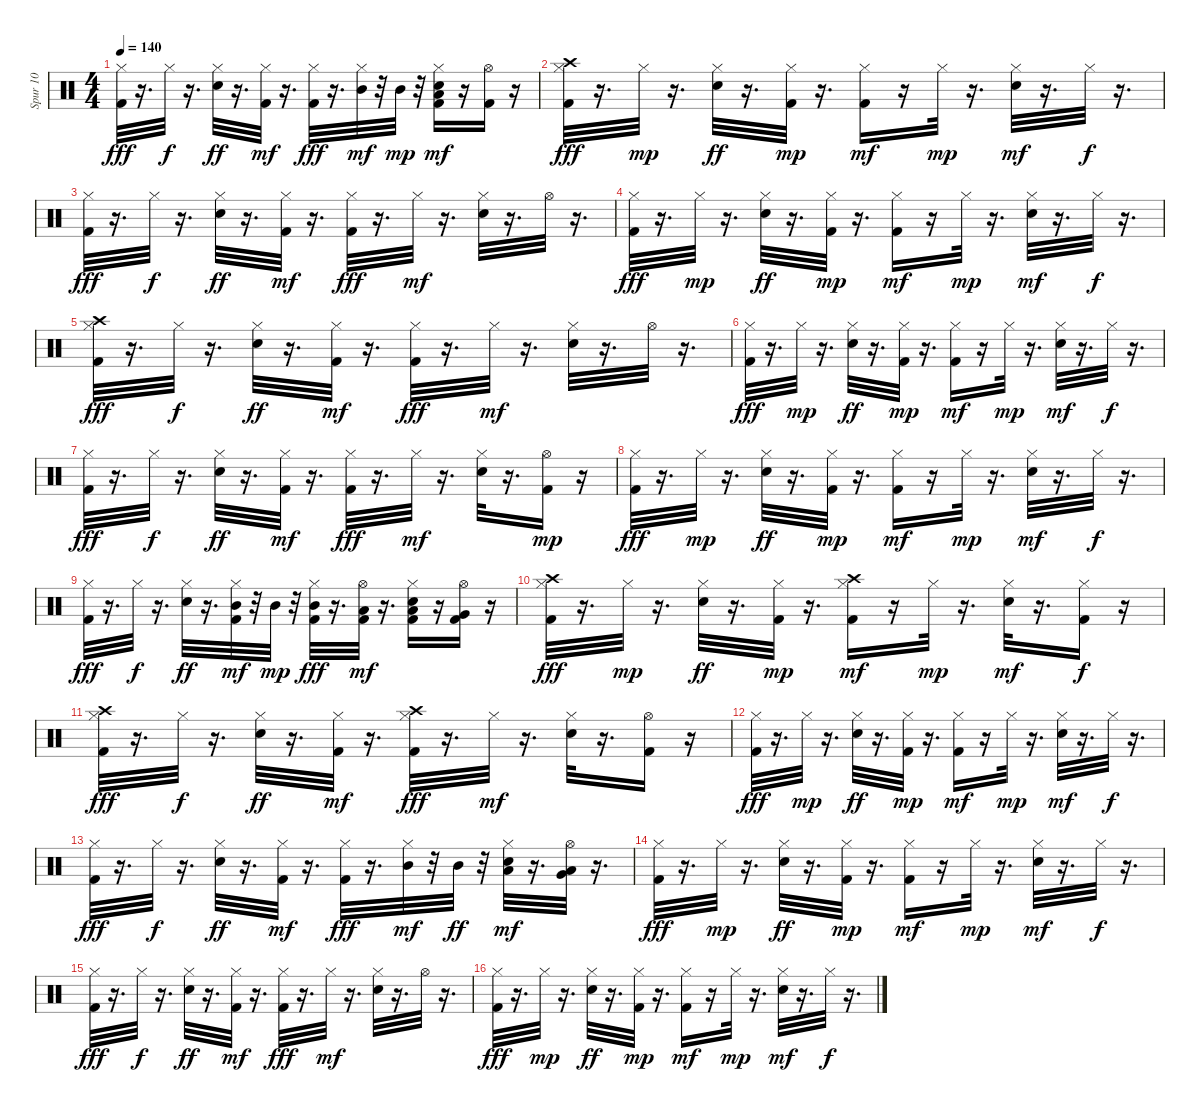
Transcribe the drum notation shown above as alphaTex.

\track ("Spur 10" "Spur 10") {instrument percussion}
\staff {score}
\articulation defaults
\ts (4 4)
\tempo 140
\clef neutral
\ks c
("Hi-Hat (closed)" "Kick (hit) 2").32{dy fff} r.16{d} "Hi-Hat (closed)".32{dy f} r.16{d} ("Hi-Hat (closed)" "Snare (hit) 2").32{dy ff} r.16{d} ("Kick (hit) 2" "Hi-Hat (closed)").32{dy mf} r.16{d} ("Hi-Hat (closed)" "Kick (hit) 2").32{dy fff} r.16{d} ("Mid Tom (hit)" "Hi-Hat (closed)").32{dy mf} r.32 "Mid Tom (hit)".32{dy mp} r.32 ("Low Tom (hit)" "Kick (hit) 2" "Snare (hit) 2" "Hi-Hat (closed)").16{dy mf} r.16 ("Kick (hit) 2" "Hi-Hat (open)").16 r.16 |
("Crash high (hit)" "Hi-Hat (closed)" "Kick (hit) 2").32{dy fff} r.16{d} "Hi-Hat (closed)".32{dy mp} r.16{d} ("Hi-Hat (closed)" "Snare (hit) 2").32{dy ff} r.16{d} ("Kick (hit) 2" "Hi-Hat (closed)").32{dy mp} r.16{d} ("Kick (hit) 2" "Hi-Hat (closed)").16{dy mf} r.16 "Hi-Hat (closed)".32{dy mp} r.16{d} ("Snare (hit) 2" "Hi-Hat (closed)").32{dy mf} r.16{d} "Hi-Hat (closed)".32{dy f} r.16{d} |
("Hi-Hat (closed)" "Kick (hit) 2").32{dy fff} r.16{d} "Hi-Hat (closed)".32{dy f} r.16{d} ("Hi-Hat (closed)" "Snare (hit) 2").32{dy ff} r.16{d} ("Kick (hit) 2" "Hi-Hat (closed)").32{dy mf} r.16{d} ("Hi-Hat (closed)" "Kick (hit) 2").32{dy fff} r.16{d} "Hi-Hat (closed)".32{dy mf} r.16{d} ("Snare (hit) 2" "Hi-Hat (closed)").32 r.16{d} "Hi-Hat (open)".32 r.16{d} |
("Hi-Hat (closed)" "Kick (hit) 2").32{dy fff} r.16{d} "Hi-Hat (closed)".32{dy mp} r.16{d} ("Hi-Hat (closed)" "Snare (hit) 2").32{dy ff} r.16{d} ("Kick (hit) 2" "Hi-Hat (closed)").32{dy mp} r.16{d} ("Kick (hit) 2" "Hi-Hat (closed)").16{dy mf} r.16 "Hi-Hat (closed)".32{dy mp} r.16{d} ("Snare (hit) 2" "Hi-Hat (closed)").32{dy mf} r.16{d} "Hi-Hat (closed)".32{dy f} r.16{d} |
("Crash high (hit)" "Hi-Hat (closed)" "Kick (hit) 2").32{dy fff} r.16{d} "Hi-Hat (closed)".32{dy f} r.16{d} ("Hi-Hat (closed)" "Snare (hit) 2").32{dy ff} r.16{d} ("Kick (hit) 2" "Hi-Hat (closed)").32{dy mf} r.16{d} ("Hi-Hat (closed)" "Kick (hit) 2").32{dy fff} r.16{d} "Hi-Hat (closed)".32{dy mf} r.16{d} ("Snare (hit) 2" "Hi-Hat (closed)").32 r.16{d} "Hi-Hat (open)".32 r.16{d} |
("Hi-Hat (closed)" "Kick (hit) 2").32{dy fff} r.16{d} "Hi-Hat (closed)".32{dy mp} r.16{d} ("Hi-Hat (closed)" "Snare (hit) 2").32{dy ff} r.16{d} ("Kick (hit) 2" "Hi-Hat (closed)").32{dy mp} r.16{d} ("Kick (hit) 2" "Hi-Hat (closed)").16{dy mf} r.16 "Hi-Hat (closed)".32{dy mp} r.16{d} ("Snare (hit) 2" "Hi-Hat (closed)").32{dy mf} r.16{d} "Hi-Hat (closed)".32{dy f} r.16{d} |
("Hi-Hat (closed)" "Kick (hit) 2").32{dy fff} r.16{d} "Hi-Hat (closed)".32{dy f} r.16{d} ("Hi-Hat (closed)" "Snare (hit) 2").32{dy ff} r.16{d} ("Kick (hit) 2" "Hi-Hat (closed)").32{dy mf} r.16{d} ("Hi-Hat (closed)" "Kick (hit) 2").32{dy fff} r.16{d} "Hi-Hat (closed)".32{dy mf} r.16{d} ("Snare (hit) 2" "Hi-Hat (closed)").32 r.16{d} ("Hi-Hat (open)" "Kick (hit) 2").16{dy mp} r.16 |
("Hi-Hat (closed)" "Kick (hit) 2").32{dy fff} r.16{d} "Hi-Hat (closed)".32{dy mp} r.16{d} ("Hi-Hat (closed)" "Snare (hit) 2").32{dy ff} r.16{d} ("Kick (hit) 2" "Hi-Hat (closed)").32{dy mp} r.16{d} ("Kick (hit) 2" "Hi-Hat (closed)").16{dy mf} r.16 "Hi-Hat (closed)".32{dy mp} r.16{d} ("Snare (hit) 2" "Hi-Hat (closed)").32{dy mf} r.16{d} "Hi-Hat (closed)".32{dy f} r.16{d} |
("Hi-Hat (closed)" "Kick (hit) 2").32{dy fff} r.16{d} "Hi-Hat (closed)".32{dy f} r.16{d} ("Hi-Hat (closed)" "Snare (hit) 2").32{dy ff} r.16{d} ("Mid Tom (hit)" "Kick (hit) 2" "Hi-Hat (closed)").32{dy mf} r.32 "Mid Tom (hit)".32{dy mp} r.32 ("Mid Tom (hit)" "Hi-Hat (closed)" "Kick (hit) 2").32{dy fff} r.16{d} ("Low Tom (hit)" "Kick (hit) 2" "Hi-Hat (open)").32{dy mf} r.16{d} ("Low Tom (hit)" "Kick (hit) 2" "Snare (hit) 2" "Hi-Hat (closed)").16 r.16 ("Very Low Tom (hit)" "Kick (hit) 2" "Hi-Hat (open)").16 r.16 |
("Crash high (hit)" "Hi-Hat (closed)" "Kick (hit) 2").32{dy fff} r.16{d} "Hi-Hat (closed)".32{dy mp} r.16{d} ("Hi-Hat (closed)" "Snare (hit) 2").32{dy ff} r.16{d} ("Kick (hit) 2" "Hi-Hat (closed)").32{dy mp} r.16{d} ("Crash high (hit)" "Kick (hit) 2" "Hi-Hat (closed)").16{dy mf} r.16 "Hi-Hat (closed)".32{dy mp} r.16{d} ("Snare (hit) 2" "Hi-Hat (closed)").32{dy mf} r.16{d} ("Kick (hit) 2" "Hi-Hat (closed)").16{dy f} r.16 |
("Crash high (hit)" "Hi-Hat (closed)" "Kick (hit) 2").32{dy fff} r.16{d} "Hi-Hat (closed)".32{dy f} r.16{d} ("Hi-Hat (closed)" "Snare (hit) 2").32{dy ff} r.16{d} ("Kick (hit) 2" "Hi-Hat (closed)").32{dy mf} r.16{d} ("Crash high (hit)" "Hi-Hat (closed)" "Kick (hit) 2").32{dy fff} r.16{d} "Hi-Hat (closed)".32{dy mf} r.16{d} ("Snare (hit) 2" "Hi-Hat (closed)").32 r.16{d} ("Kick (hit) 2" "Hi-Hat (open)").16 r.16 |
("Hi-Hat (closed)" "Kick (hit) 2").32{dy fff} r.16{d} "Hi-Hat (closed)".32{dy mp} r.16{d} ("Hi-Hat (closed)" "Snare (hit) 2").32{dy ff} r.16{d} ("Kick (hit) 2" "Hi-Hat (closed)").32{dy mp} r.16{d} ("Kick (hit) 2" "Hi-Hat (closed)").16{dy mf} r.16 "Hi-Hat (closed)".32{dy mp} r.16{d} ("Snare (hit) 2" "Hi-Hat (closed)").32{dy mf} r.16{d} "Hi-Hat (closed)".32{dy f} r.16{d} |
("Hi-Hat (closed)" "Kick (hit) 2").32{dy fff} r.16{d} "Hi-Hat (closed)".32{dy f} r.16{d} ("Hi-Hat (closed)" "Snare (hit) 2").32{dy ff} r.16{d} ("Kick (hit) 2" "Hi-Hat (closed)").32{dy mf} r.16{d} ("Hi-Hat (closed)" "Kick (hit) 2").32{dy fff} r.16{d} ("Mid Tom (hit)" "Hi-Hat (closed)").32{dy mf} r.32 "Mid Tom (hit)".32{dy ff} r.32 ("Low Tom (hit)" "Snare (hit) 2" "Hi-Hat (closed)").32{dy mf} r.16{d} ("Low Tom (hit)" "Very Low Tom (hit)" "Hi-Hat (open)").32 r.16{d} |
("Hi-Hat (closed)" "Kick (hit) 2").32{dy fff} r.16{d} "Hi-Hat (closed)".32{dy mp} r.16{d} ("Hi-Hat (closed)" "Snare (hit) 2").32{dy ff} r.16{d} ("Kick (hit) 2" "Hi-Hat (closed)").32{dy mp} r.16{d} ("Kick (hit) 2" "Hi-Hat (closed)").16{dy mf} r.16 "Hi-Hat (closed)".32{dy mp} r.16{d} ("Snare (hit) 2" "Hi-Hat (closed)").32{dy mf} r.16{d} "Hi-Hat (closed)".32{dy f} r.16{d} |
("Hi-Hat (closed)" "Kick (hit) 2").32{dy fff} r.16{d} "Hi-Hat (closed)".32{dy f} r.16{d} ("Hi-Hat (closed)" "Snare (hit) 2").32{dy ff} r.16{d} ("Kick (hit) 2" "Hi-Hat (closed)").32{dy mf} r.16{d} ("Hi-Hat (closed)" "Kick (hit) 2").32{dy fff} r.16{d} "Hi-Hat (closed)".32{dy mf} r.16{d} ("Snare (hit) 2" "Hi-Hat (closed)").32 r.16{d} "Hi-Hat (open)".32 r.16{d} |
("Hi-Hat (closed)" "Kick (hit) 2").32{dy fff} r.16{d} "Hi-Hat (closed)".32{dy mp} r.16{d} ("Hi-Hat (closed)" "Snare (hit) 2").32{dy ff} r.16{d} ("Kick (hit) 2" "Hi-Hat (closed)").32{dy mp} r.16{d} ("Kick (hit) 2" "Hi-Hat (closed)").16{dy mf} r.16 "Hi-Hat (closed)".32{dy mp} r.16{d} ("Snare (hit) 2" "Hi-Hat (closed)").32{dy mf} r.16{d} "Hi-Hat (closed)".32{dy f} r.16{d}
